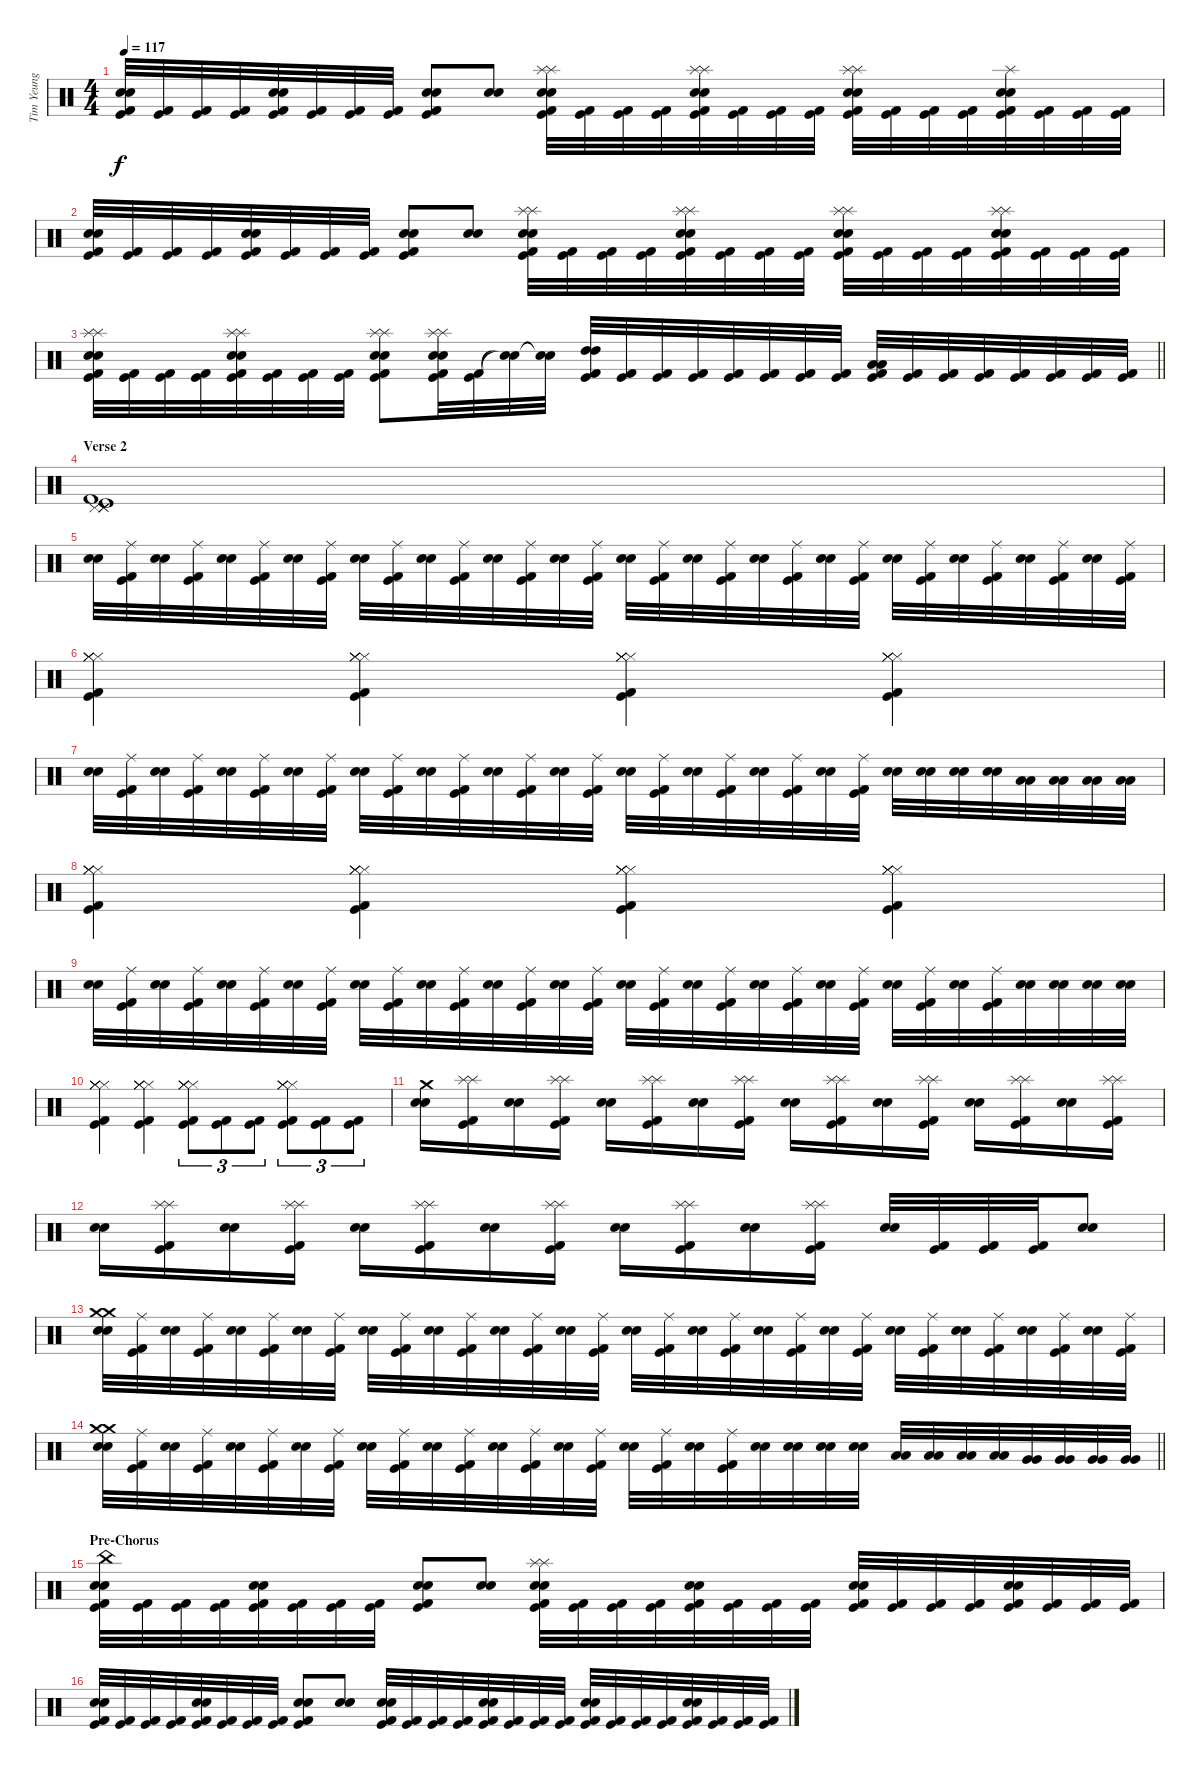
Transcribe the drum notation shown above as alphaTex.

\track ("Tim Yeung" "Tim Yeung") {instrument percussion}
\staff {score}
\articulation defaults
\ts (4 4)
\tempo 117
\clef neutral
\ks c
("Electric Snare (hit)" "Snare (hit) 2" "Kick (hit)" "Kick (hit) 2").32{dy f} ("Kick (hit)" "Kick (hit) 2").32 ("Kick (hit)" "Kick (hit) 2").32 ("Kick (hit)" "Kick (hit) 2").32 ("Electric Snare (hit)" "Snare (hit) 2" "Kick (hit)" "Kick (hit) 2").32 ("Kick (hit)" "Kick (hit) 2").32 ("Kick (hit)" "Kick (hit) 2").32 ("Kick (hit)" "Kick (hit) 2").32 ("Electric Snare (hit)" "Snare (hit) 2" "Kick (hit)" "Kick (hit) 2").8 ("Electric Snare (hit)" "Snare (hit) 2").8 ("Splash (hit)" "Splash (hit)" "Electric Snare (hit)" "Snare (hit) 2" "Kick (hit)" "Kick (hit) 2").32 ("Kick (hit)" "Kick (hit) 2").32 ("Kick (hit)" "Kick (hit) 2").32 ("Kick (hit)" "Kick (hit) 2").32 ("Splash (hit)" "Splash (hit)" "Electric Snare (hit)" "Snare (hit) 2" "Kick (hit)" "Kick (hit) 2").32 ("Kick (hit)" "Kick (hit) 2").32 ("Kick (hit)" "Kick (hit) 2").32 ("Kick (hit)" "Kick (hit) 2").32 ("Splash (hit)" "Splash (hit)" "Electric Snare (hit)" "Snare (hit) 2" "Kick (hit)" "Kick (hit) 2").32 ("Kick (hit)" "Kick (hit) 2").32 ("Kick (hit)" "Kick (hit) 2").32 ("Kick (hit)" "Kick (hit) 2").32 ("Splash (hit)" "Electric Snare (hit)" "Snare (hit) 2" "Kick (hit)" "Kick (hit) 2").32 ("Kick (hit)" "Kick (hit) 2").32 ("Kick (hit)" "Kick (hit) 2").32 ("Kick (hit)" "Kick (hit) 2").32 |
("Electric Snare (hit)" "Snare (hit) 2" "Kick (hit)" "Kick (hit) 2").32 ("Kick (hit)" "Kick (hit) 2").32 ("Kick (hit)" "Kick (hit) 2").32 ("Kick (hit)" "Kick (hit) 2").32 ("Electric Snare (hit)" "Snare (hit) 2" "Kick (hit)" "Kick (hit) 2").32 ("Kick (hit)" "Kick (hit) 2").32 ("Kick (hit)" "Kick (hit) 2").32 ("Kick (hit)" "Kick (hit) 2").32 ("Electric Snare (hit)" "Snare (hit) 2" "Kick (hit)" "Kick (hit) 2").8 ("Electric Snare (hit)" "Snare (hit) 2").8 ("Splash (hit)" "Splash (hit)" "Electric Snare (hit)" "Snare (hit) 2" "Kick (hit)" "Kick (hit) 2").32 ("Kick (hit)" "Kick (hit) 2").32 ("Kick (hit)" "Kick (hit) 2").32 ("Kick (hit)" "Kick (hit) 2").32 ("Splash (hit)" "Splash (hit)" "Electric Snare (hit)" "Snare (hit) 2" "Kick (hit)" "Kick (hit) 2").32 ("Kick (hit)" "Kick (hit) 2").32 ("Kick (hit)" "Kick (hit) 2").32 ("Kick (hit)" "Kick (hit) 2").32 ("Splash (hit)" "Splash (hit)" "Electric Snare (hit)" "Snare (hit) 2" "Kick (hit)" "Kick (hit) 2").32 ("Kick (hit)" "Kick (hit) 2").32 ("Kick (hit)" "Kick (hit) 2").32 ("Kick (hit)" "Kick (hit) 2").32 ("Splash (hit)" "Splash (hit)" "Electric Snare (hit)" "Snare (hit) 2" "Kick (hit)" "Kick (hit) 2").32 ("Kick (hit)" "Kick (hit) 2").32 ("Kick (hit)" "Kick (hit) 2").32 ("Kick (hit)" "Kick (hit) 2").32 |
\barLineRight lightlight
("Splash (hit)" "Splash (hit)" "Electric Snare (hit)" "Snare (hit) 2" "Kick (hit)" "Kick (hit) 2").32 ("Kick (hit)" "Kick (hit) 2").32 ("Kick (hit)" "Kick (hit) 2").32 ("Kick (hit)" "Kick (hit) 2").32 ("Splash (hit)" "Splash (hit)" "Electric Snare (hit)" "Snare (hit) 2" "Kick (hit)" "Kick (hit) 2").32 ("Kick (hit)" "Kick (hit) 2").32 ("Kick (hit)" "Kick (hit) 2").32 ("Kick (hit)" "Kick (hit) 2").32 ("Splash (hit)" "Splash (hit)" "Electric Snare (hit)" "Snare (hit) 2" "Kick (hit)" "Kick (hit) 2").8 ("Splash (hit)" "Splash (hit)" "Electric Snare (hit)" "Snare (hit) 2" "Kick (hit)" "Kick (hit) 2").32 ("Kick (hit)" "Kick (hit) 2").32 ("Snare (hit)"{t} "Snare (hit)"{t}).32 ("Snare (hit)"{t} "Snare (hit)"{t}).32 ("High Tom (hit)" "High Tom (hit)" "Kick (hit)" "Kick (hit) 2").32 ("Kick (hit)" "Kick (hit) 2").32 ("Kick (hit)" "Kick (hit) 2").32 ("Kick (hit)" "Kick (hit) 2").32 ("Kick (hit)" "Kick (hit) 2").32 ("Kick (hit)" "Kick (hit) 2").32 ("Kick (hit)" "Kick (hit) 2").32 ("Kick (hit)" "Kick (hit) 2").32 ("Low Tom (hit)" "Low Tom (hit)" "Kick (hit)" "Kick (hit) 2").32 ("Kick (hit)" "Kick (hit) 2").32 ("Kick (hit)" "Kick (hit) 2").32 ("Kick (hit)" "Kick (hit) 2").32 ("Kick (hit)" "Kick (hit) 2").32 ("Kick (hit)" "Kick (hit) 2").32 ("Kick (hit)" "Kick (hit) 2").32 ("Kick (hit)" "Kick (hit) 2").32 |
\section ("" "Verse 2")
("Pedal Hi-Hat (hit)" "Pedal Hi-Hat (hit)" "Pedal Hi-Hat (hit)" "Pedal Hi-Hat (hit)" "Kick (hit)" "Kick (hit) 2").1 |
("Electric Snare (hit)" "Snare (hit) 2").32 ("Ride (middle)" "Kick (hit)" "Kick (hit) 2").32 ("Electric Snare (hit)" "Snare (hit) 2").32 ("Ride (middle)" "Kick (hit)" "Kick (hit) 2").32 ("Electric Snare (hit)" "Snare (hit) 2").32 ("Ride (middle)" "Kick (hit)" "Kick (hit) 2").32 ("Electric Snare (hit)" "Snare (hit) 2").32 ("Ride (middle)" "Kick (hit)" "Kick (hit) 2").32 ("Electric Snare (hit)" "Snare (hit) 2").32 ("Ride (middle)" "Kick (hit)" "Kick (hit) 2").32 ("Electric Snare (hit)" "Snare (hit) 2").32 ("Ride (middle)" "Kick (hit)" "Kick (hit) 2").32 ("Electric Snare (hit)" "Snare (hit) 2").32 ("Ride (middle)" "Kick (hit)" "Kick (hit) 2").32 ("Electric Snare (hit)" "Snare (hit) 2").32 ("Ride (middle)" "Kick (hit)" "Kick (hit) 2").32 ("Electric Snare (hit)" "Snare (hit) 2").32 ("Ride (middle)" "Kick (hit)" "Kick (hit) 2").32 ("Electric Snare (hit)" "Snare (hit) 2").32 ("Ride (middle)" "Kick (hit)" "Kick (hit) 2").32 ("Electric Snare (hit)" "Snare (hit) 2").32 ("Ride (middle)" "Kick (hit)" "Kick (hit) 2").32 ("Electric Snare (hit)" "Snare (hit) 2").32 ("Ride (middle)" "Kick (hit)" "Kick (hit) 2").32 ("Electric Snare (hit)" "Snare (hit) 2").32 ("Ride (middle)" "Kick (hit)" "Kick (hit) 2").32 ("Electric Snare (hit)" "Snare (hit) 2").32 ("Ride (middle)" "Kick (hit)" "Kick (hit) 2").32 ("Electric Snare (hit)" "Snare (hit) 2").32 ("Ride (middle)" "Kick (hit)" "Kick (hit) 2").32 ("Electric Snare (hit)" "Snare (hit) 2").32 ("Ride (middle)" "Kick (hit)" "Kick (hit) 2").32 |
("Hi-Hat (closed)" "Hi-Hat (closed)" "Hi-Hat (closed)" "Hi-Hat (closed)" "Kick (hit)" "Kick (hit) 2").4 ("Hi-Hat (closed)" "Hi-Hat (closed)" "Hi-Hat (closed)" "Hi-Hat (closed)" "Kick (hit)" "Kick (hit) 2").4 ("Hi-Hat (closed)" "Hi-Hat (closed)" "Hi-Hat (closed)" "Hi-Hat (closed)" "Kick (hit)" "Kick (hit) 2").4 ("Hi-Hat (closed)" "Hi-Hat (closed)" "Hi-Hat (closed)" "Hi-Hat (closed)" "Kick (hit)" "Kick (hit) 2").4 |
("Electric Snare (hit)" "Snare (hit) 2").32 ("Ride (middle)" "Kick (hit)" "Kick (hit) 2").32 ("Electric Snare (hit)" "Snare (hit) 2").32 ("Ride (middle)" "Kick (hit)" "Kick (hit) 2").32 ("Electric Snare (hit)" "Snare (hit) 2").32 ("Ride (middle)" "Kick (hit)" "Kick (hit) 2").32 ("Electric Snare (hit)" "Snare (hit) 2").32 ("Ride (middle)" "Kick (hit)" "Kick (hit) 2").32 ("Electric Snare (hit)" "Snare (hit) 2").32 ("Ride (middle)" "Kick (hit)" "Kick (hit) 2").32 ("Electric Snare (hit)" "Snare (hit) 2").32 ("Ride (middle)" "Kick (hit)" "Kick (hit) 2").32 ("Electric Snare (hit)" "Snare (hit) 2").32 ("Ride (middle)" "Kick (hit)" "Kick (hit) 2").32 ("Electric Snare (hit)" "Snare (hit) 2").32 ("Ride (middle)" "Kick (hit)" "Kick (hit) 2").32 ("Electric Snare (hit)" "Snare (hit) 2").32 ("Ride (middle)" "Kick (hit)" "Kick (hit) 2").32 ("Electric Snare (hit)" "Snare (hit) 2").32 ("Ride (middle)" "Kick (hit)" "Kick (hit) 2").32 ("Electric Snare (hit)" "Snare (hit) 2").32 ("Ride (middle)" "Kick (hit)" "Kick (hit) 2").32 ("Electric Snare (hit)" "Snare (hit) 2").32 ("Ride (middle)" "Kick (hit)" "Kick (hit) 2").32 ("Electric Snare (hit)" "Snare (hit) 2").32 ("Electric Snare (hit)" "Snare (hit) 2").32 ("Electric Snare (hit)" "Snare (hit) 2").32 ("Electric Snare (hit)" "Snare (hit) 2").32 ("Low Tom (hit)" "Low Tom (hit)").32 ("Low Tom (hit)" "Low Tom (hit)").32 ("Low Tom (hit)" "Low Tom (hit)").32 ("Low Tom (hit)" "Low Tom (hit)").32 |
("Hi-Hat (closed)" "Hi-Hat (closed)" "Hi-Hat (closed)" "Hi-Hat (closed)" "Kick (hit)" "Kick (hit) 2").4 ("Hi-Hat (closed)" "Hi-Hat (closed)" "Hi-Hat (closed)" "Hi-Hat (closed)" "Kick (hit)" "Kick (hit) 2").4 ("Hi-Hat (closed)" "Hi-Hat (closed)" "Hi-Hat (closed)" "Hi-Hat (closed)" "Kick (hit)" "Kick (hit) 2").4 ("Hi-Hat (closed)" "Hi-Hat (closed)" "Hi-Hat (closed)" "Hi-Hat (closed)" "Kick (hit)" "Kick (hit) 2").4 |
("Electric Snare (hit)" "Snare (hit) 2").32 ("Ride (middle)" "Kick (hit)" "Kick (hit) 2").32 ("Electric Snare (hit)" "Snare (hit) 2").32 ("Ride (middle)" "Kick (hit)" "Kick (hit) 2").32 ("Electric Snare (hit)" "Snare (hit) 2").32 ("Ride (middle)" "Kick (hit)" "Kick (hit) 2").32 ("Electric Snare (hit)" "Snare (hit) 2").32 ("Ride (middle)" "Kick (hit)" "Kick (hit) 2").32 ("Electric Snare (hit)" "Snare (hit) 2").32 ("Ride (middle)" "Kick (hit)" "Kick (hit) 2").32 ("Electric Snare (hit)" "Snare (hit) 2").32 ("Ride (middle)" "Kick (hit)" "Kick (hit) 2").32 ("Electric Snare (hit)" "Snare (hit) 2").32 ("Ride (middle)" "Kick (hit)" "Kick (hit) 2").32 ("Electric Snare (hit)" "Snare (hit) 2").32 ("Ride (middle)" "Kick (hit)" "Kick (hit) 2").32 ("Electric Snare (hit)" "Snare (hit) 2").32 ("Ride (middle)" "Kick (hit)" "Kick (hit) 2").32 ("Electric Snare (hit)" "Snare (hit) 2").32 ("Ride (middle)" "Kick (hit)" "Kick (hit) 2").32 ("Electric Snare (hit)" "Snare (hit) 2").32 ("Ride (middle)" "Kick (hit)" "Kick (hit) 2").32 ("Electric Snare (hit)" "Snare (hit) 2").32 ("Ride (middle)" "Kick (hit)" "Kick (hit) 2").32 ("Electric Snare (hit)" "Snare (hit) 2").32 ("Ride (middle)" "Kick (hit)" "Kick (hit) 2").32 ("Electric Snare (hit)" "Snare (hit) 2").32 ("Ride (middle)" "Kick (hit)" "Kick (hit) 2").32 ("Electric Snare (hit)" "Snare (hit) 2").32 ("Electric Snare (hit)" "Snare (hit) 2").32 ("Electric Snare (hit)" "Snare (hit) 2").32 ("Electric Snare (hit)" "Snare (hit) 2").32 |
("Hi-Hat (closed)" "Hi-Hat (closed)" "Hi-Hat (closed)" "Hi-Hat (closed)" "Kick (hit)" "Kick (hit) 2").4 ("Hi-Hat (closed)" "Hi-Hat (closed)" "Hi-Hat (closed)" "Hi-Hat (closed)" "Kick (hit)" "Kick (hit) 2").4 ("Hi-Hat (closed)" "Hi-Hat (closed)" "Hi-Hat (closed)" "Hi-Hat (closed)" "Kick (hit)" "Kick (hit) 2").8{tu (3 2)} ("Kick (hit)" "Kick (hit) 2").8{tu (3 2)} ("Kick (hit)" "Kick (hit) 2").8{tu (3 2)} ("Hi-Hat (closed)" "Hi-Hat (closed)" "Hi-Hat (closed)" "Hi-Hat (closed)" "Kick (hit)" "Kick (hit) 2").8{tu (3 2)} ("Kick (hit)" "Kick (hit) 2").8{tu (3 2)} ("Kick (hit)" "Kick (hit) 2").8{tu (3 2)} |
("Crash medium (hit)" "Electric Snare (hit)" "Snare (hit) 2").16 ("Splash (hit)" "Splash (hit)" "Kick (hit)" "Kick (hit) 2").16 ("Electric Snare (hit)" "Snare (hit) 2").16 ("Splash (hit)" "Splash (hit)" "Kick (hit)" "Kick (hit) 2").16 ("Electric Snare (hit)" "Snare (hit) 2").16 ("Splash (hit)" "Splash (hit)" "Kick (hit)" "Kick (hit) 2").16 ("Electric Snare (hit)" "Snare (hit) 2").16 ("Splash (hit)" "Splash (hit)" "Kick (hit)" "Kick (hit) 2").16 ("Electric Snare (hit)" "Snare (hit) 2").16 ("Splash (hit)" "Splash (hit)" "Kick (hit)" "Kick (hit) 2").16 ("Electric Snare (hit)" "Snare (hit) 2").16 ("Splash (hit)" "Splash (hit)" "Kick (hit)" "Kick (hit) 2").16 ("Electric Snare (hit)" "Snare (hit) 2").16 ("Splash (hit)" "Splash (hit)" "Kick (hit)" "Kick (hit) 2").16 ("Electric Snare (hit)" "Snare (hit) 2").16 ("Splash (hit)" "Splash (hit)" "Kick (hit)" "Kick (hit) 2").16 |
("Electric Snare (hit)" "Snare (hit) 2").16 ("Splash (hit)" "Splash (hit)" "Kick (hit)" "Kick (hit) 2").16 ("Electric Snare (hit)" "Snare (hit) 2").16 ("Splash (hit)" "Splash (hit)" "Kick (hit)" "Kick (hit) 2").16 ("Electric Snare (hit)" "Snare (hit) 2").16 ("Splash (hit)" "Splash (hit)" "Kick (hit)" "Kick (hit) 2").16 ("Electric Snare (hit)" "Snare (hit) 2").16 ("Splash (hit)" "Splash (hit)" "Kick (hit)" "Kick (hit) 2").16 ("Electric Snare (hit)" "Snare (hit) 2").16 ("Splash (hit)" "Splash (hit)" "Kick (hit)" "Kick (hit) 2").16 ("Electric Snare (hit)" "Snare (hit) 2").16 ("Splash (hit)" "Splash (hit)" "Kick (hit)" "Kick (hit) 2").16 ("Electric Snare (hit)" "Snare (hit) 2").32 ("Kick (hit)" "Kick (hit) 2").32 ("Kick (hit)" "Kick (hit) 2").32 ("Kick (hit)" "Kick (hit) 2").32 ("Electric Snare (hit)" "Snare (hit) 2").8 |
("Crash medium (hit)" "Crash medium (hit)" "Electric Snare (hit)" "Snare (hit) 2").32 ("Ride (middle)" "Kick (hit)" "Kick (hit) 2").32 ("Electric Snare (hit)" "Snare (hit) 2").32 ("Ride (middle)" "Kick (hit)" "Kick (hit) 2").32 ("Electric Snare (hit)" "Snare (hit) 2").32 ("Ride (middle)" "Kick (hit)" "Kick (hit) 2").32 ("Electric Snare (hit)" "Snare (hit) 2").32 ("Ride (middle)" "Kick (hit)" "Kick (hit) 2").32 ("Electric Snare (hit)" "Snare (hit) 2").32 ("Ride (middle)" "Kick (hit)" "Kick (hit) 2").32 ("Electric Snare (hit)" "Snare (hit) 2").32 ("Ride (middle)" "Kick (hit)" "Kick (hit) 2").32 ("Electric Snare (hit)" "Snare (hit) 2").32 ("Ride (middle)" "Kick (hit)" "Kick (hit) 2").32 ("Electric Snare (hit)" "Snare (hit) 2").32 ("Ride (middle)" "Kick (hit)" "Kick (hit) 2").32 ("Electric Snare (hit)" "Snare (hit) 2").32 ("Ride (middle)" "Kick (hit)" "Kick (hit) 2").32 ("Electric Snare (hit)" "Snare (hit) 2").32 ("Ride (middle)" "Kick (hit)" "Kick (hit) 2").32 ("Electric Snare (hit)" "Snare (hit) 2").32 ("Ride (middle)" "Kick (hit)" "Kick (hit) 2").32 ("Electric Snare (hit)" "Snare (hit) 2").32 ("Ride (middle)" "Kick (hit)" "Kick (hit) 2").32 ("Electric Snare (hit)" "Snare (hit) 2").32 ("Ride (middle)" "Kick (hit)" "Kick (hit) 2").32 ("Electric Snare (hit)" "Snare (hit) 2").32 ("Ride (middle)" "Kick (hit)" "Kick (hit) 2").32 ("Electric Snare (hit)" "Snare (hit) 2").32 ("Ride (middle)" "Kick (hit)" "Kick (hit) 2").32 ("Electric Snare (hit)" "Snare (hit) 2").32 ("Ride (middle)" "Kick (hit)" "Kick (hit) 2").32 |
\barLineRight lightlight
("Crash medium (hit)" "Crash medium (hit)" "Electric Snare (hit)" "Snare (hit) 2").32 ("Ride (middle)" "Kick (hit)" "Kick (hit) 2").32 ("Electric Snare (hit)" "Snare (hit) 2").32 ("Ride (middle)" "Kick (hit)" "Kick (hit) 2").32 ("Electric Snare (hit)" "Snare (hit) 2").32 ("Ride (middle)" "Kick (hit)" "Kick (hit) 2").32 ("Electric Snare (hit)" "Snare (hit) 2").32 ("Ride (middle)" "Kick (hit)" "Kick (hit) 2").32 ("Electric Snare (hit)" "Snare (hit) 2").32 ("Ride (middle)" "Kick (hit)" "Kick (hit) 2").32 ("Electric Snare (hit)" "Snare (hit) 2").32 ("Ride (middle)" "Kick (hit)" "Kick (hit) 2").32 ("Electric Snare (hit)" "Snare (hit) 2").32 ("Ride (middle)" "Kick (hit)" "Kick (hit) 2").32 ("Electric Snare (hit)" "Snare (hit) 2").32 ("Ride (middle)" "Kick (hit)" "Kick (hit) 2").32 ("Electric Snare (hit)" "Snare (hit) 2").32 ("Ride (middle)" "Kick (hit)" "Kick (hit) 2").32 ("Electric Snare (hit)" "Snare (hit) 2").32 ("Ride (middle)" "Kick (hit)" "Kick (hit) 2").32 ("Electric Snare (hit)" "Snare (hit) 2").32 ("Electric Snare (hit)" "Snare (hit) 2").32 ("Electric Snare (hit)" "Snare (hit) 2").32 ("Electric Snare (hit)" "Snare (hit) 2").32 ("Low Tom (hit)" "Low Tom (hit)").32 ("Low Tom (hit)" "Low Tom (hit)").32 ("Low Tom (hit)" "Low Tom (hit)").32 ("Low Tom (hit)" "Low Tom (hit)").32 ("Very Low Tom (hit)" "Very Low Tom (hit)").32 ("Very Low Tom (hit)" "Very Low Tom (hit)").32 ("Very Low Tom (hit)" "Very Low Tom (hit)").32 ("Very Low Tom (hit)" "Very Low Tom (hit)").32 |
\section ("" "Pre-Chorus")
("China (hit)" "Electric Snare (hit)" "Snare (hit) 2" "Kick (hit)" "Kick (hit) 2").32 ("Kick (hit)" "Kick (hit) 2").32 ("Kick (hit)" "Kick (hit) 2").32 ("Kick (hit)" "Kick (hit) 2").32 ("Electric Snare (hit)" "Snare (hit) 2" "Kick (hit)" "Kick (hit) 2").32 ("Kick (hit)" "Kick (hit) 2").32 ("Kick (hit)" "Kick (hit) 2").32 ("Kick (hit)" "Kick (hit) 2").32 ("Electric Snare (hit)" "Snare (hit) 2" "Kick (hit)" "Kick (hit) 2").8 ("Electric Snare (hit)" "Snare (hit) 2").8 ("Splash (hit)" "Splash (hit)" "Electric Snare (hit)" "Snare (hit) 2" "Kick (hit)" "Kick (hit) 2").32 ("Kick (hit)" "Kick (hit) 2").32 ("Kick (hit)" "Kick (hit) 2").32 ("Kick (hit)" "Kick (hit) 2").32 ("Electric Snare (hit)" "Snare (hit) 2" "Kick (hit)" "Kick (hit) 2").32 ("Kick (hit)" "Kick (hit) 2").32 ("Kick (hit)" "Kick (hit) 2").32 ("Kick (hit)" "Kick (hit) 2").32 ("Electric Snare (hit)" "Snare (hit) 2" "Kick (hit)" "Kick (hit) 2").32 ("Kick (hit)" "Kick (hit) 2").32 ("Kick (hit)" "Kick (hit) 2").32 ("Kick (hit)" "Kick (hit) 2").32 ("Electric Snare (hit)" "Snare (hit) 2" "Kick (hit)" "Kick (hit) 2").32 ("Kick (hit)" "Kick (hit) 2").32 ("Kick (hit)" "Kick (hit) 2").32 ("Kick (hit)" "Kick (hit) 2").32 |
("Electric Snare (hit)" "Snare (hit) 2" "Kick (hit)" "Kick (hit) 2").32 ("Kick (hit)" "Kick (hit) 2").32 ("Kick (hit)" "Kick (hit) 2").32 ("Kick (hit)" "Kick (hit) 2").32 ("Electric Snare (hit)" "Snare (hit) 2" "Kick (hit)" "Kick (hit) 2").32 ("Kick (hit)" "Kick (hit) 2").32 ("Kick (hit)" "Kick (hit) 2").32 ("Kick (hit)" "Kick (hit) 2").32 ("Electric Snare (hit)" "Snare (hit) 2" "Kick (hit)" "Kick (hit) 2").8 ("Electric Snare (hit)" "Snare (hit) 2").8 ("Electric Snare (hit)" "Snare (hit) 2" "Kick (hit)" "Kick (hit) 2").32 ("Kick (hit)" "Kick (hit) 2").32 ("Kick (hit)" "Kick (hit) 2").32 ("Kick (hit)" "Kick (hit) 2").32 ("Electric Snare (hit)" "Snare (hit) 2" "Kick (hit)" "Kick (hit) 2").32 ("Kick (hit)" "Kick (hit) 2").32 ("Kick (hit)" "Kick (hit) 2").32 ("Kick (hit)" "Kick (hit) 2").32 ("Electric Snare (hit)" "Snare (hit) 2" "Kick (hit)" "Kick (hit) 2").32 ("Kick (hit)" "Kick (hit) 2").32 ("Kick (hit)" "Kick (hit) 2").32 ("Kick (hit)" "Kick (hit) 2").32 ("Electric Snare (hit)" "Snare (hit) 2" "Kick (hit)" "Kick (hit) 2").32 ("Kick (hit)" "Kick (hit) 2").32 ("Kick (hit)" "Kick (hit) 2").32 ("Kick (hit)" "Kick (hit) 2").32
